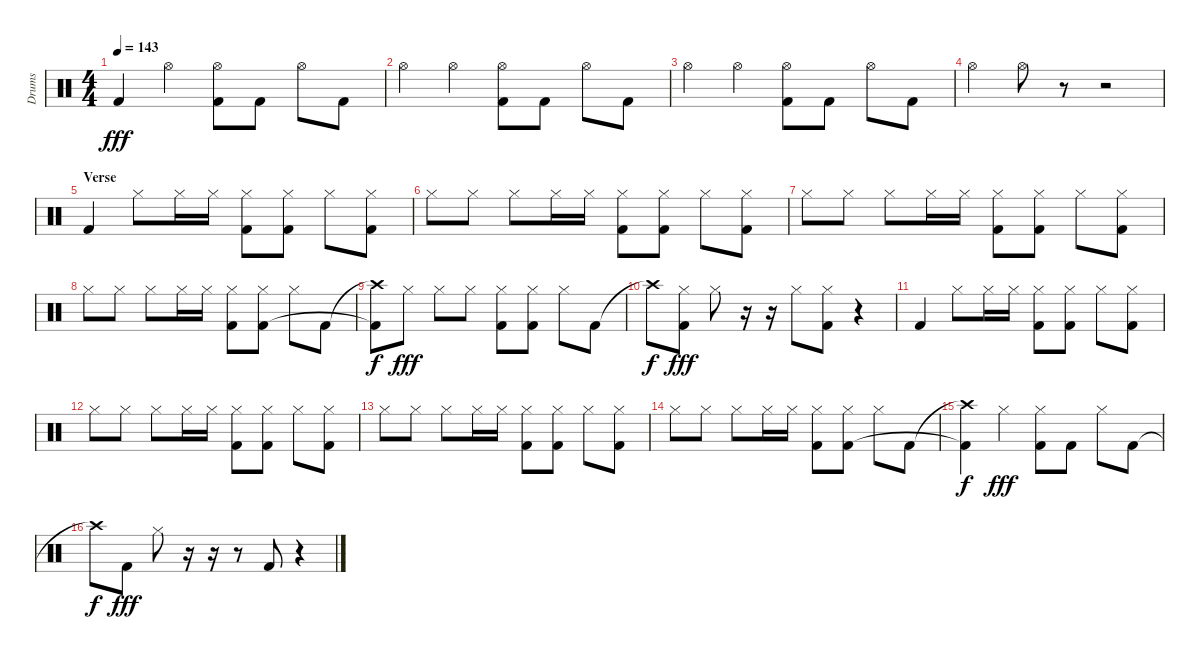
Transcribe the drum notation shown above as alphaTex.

\track ("Drums" "Drums") {instrument percussion}
\staff {score}
\articulation defaults
\ts (4 4)
\tempo 143
\clef neutral
\ks c "Kick (hit) 2".4{dy fff} "Hi-Hat (open)".4
("Hi-Hat (open)" "Kick (hit) 2").8 "Kick (hit) 2".8 "Hi-Hat (open)".8 "Kick (hit) 2".8 |
"Hi-Hat (open)".4 "Hi-Hat (open)".4 ("Hi-Hat (open)" "Kick (hit) 2").8 "Kick (hit) 2".8 "Hi-Hat (open)".8 "Kick (hit) 2".8 |
"Hi-Hat (open)".4 "Hi-Hat (open)".4 ("Hi-Hat (open)" "Kick (hit) 2").8 "Kick (hit) 2".8 "Hi-Hat (open)".8 "Kick (hit) 2".8 |
"Hi-Hat (open)".4 "Hi-Hat (open)".8 r.8 r.2 |
\section ("" "Verse")
"Kick (hit) 2".4 "Hi-Hat (closed)".8 "Hi-Hat (closed)".16 "Hi-Hat (closed)".16 ("Hi-Hat (closed)" "Kick (hit) 2").8 ("Hi-Hat (closed)" "Kick (hit) 2").8 "Hi-Hat (closed)".8 ("Hi-Hat (closed)" "Kick (hit) 2").8 |
"Hi-Hat (closed)".8 "Hi-Hat (closed)".8 "Hi-Hat (closed)".8 "Hi-Hat (closed)".16 "Hi-Hat (closed)".16 ("Hi-Hat (closed)" "Kick (hit) 2").8 ("Hi-Hat (closed)" "Kick (hit) 2").8 "Hi-Hat (closed)".8 ("Hi-Hat (closed)" "Kick (hit) 2").8 |
"Hi-Hat (closed)".8 "Hi-Hat (closed)".8 "Hi-Hat (closed)".8 "Hi-Hat (closed)".16 "Hi-Hat (closed)".16 ("Hi-Hat (closed)" "Kick (hit) 2").8 ("Hi-Hat (closed)" "Kick (hit) 2").8 "Hi-Hat (closed)".8 ("Hi-Hat (closed)" "Kick (hit) 2").8 |
"Hi-Hat (closed)".8 "Hi-Hat (closed)".8 "Hi-Hat (closed)".8 "Hi-Hat (closed)".16 "Hi-Hat (closed)".16 ("Hi-Hat (closed)" "Kick (hit) 2").8 ("Hi-Hat (closed)" "Kick (hit) 2").8 "Hi-Hat (closed)".8 "Kick (hit) 2".8 |
("Crash high (hit)"{t} "Kick (hit) 2"{t}).8{dy f} "Hi-Hat (closed)".8{dy fff} "Hi-Hat (closed)".8 "Hi-Hat (closed)".8 ("Hi-Hat (closed)" "Kick (hit) 2").8 ("Hi-Hat (closed)" "Kick (hit) 2").8 "Hi-Hat (closed)".8 "Kick (hit) 2".8 |
"Crash high (hit)"{t}.8{dy f} ("Hi-Hat (closed)" "Kick (hit) 2").8{dy fff} "Hi-Hat (closed)".8 r.16 r.16 "Hi-Hat (closed)".8 ("Hi-Hat (closed)" "Kick (hit) 2").8 r.4 |
"Kick (hit) 2".4 "Hi-Hat (closed)".8 "Hi-Hat (closed)".16 "Hi-Hat (closed)".16 ("Hi-Hat (closed)" "Kick (hit) 2").8 ("Hi-Hat (closed)" "Kick (hit) 2").8 "Hi-Hat (closed)".8 ("Hi-Hat (closed)" "Kick (hit) 2").8 |
"Hi-Hat (closed)".8 "Hi-Hat (closed)".8 "Hi-Hat (closed)".8 "Hi-Hat (closed)".16 "Hi-Hat (closed)".16 ("Hi-Hat (closed)" "Kick (hit) 2").8 ("Hi-Hat (closed)" "Kick (hit) 2").8 "Hi-Hat (closed)".8 ("Hi-Hat (closed)" "Kick (hit) 2").8 |
"Hi-Hat (closed)".8 "Hi-Hat (closed)".8 "Hi-Hat (closed)".8 "Hi-Hat (closed)".16 "Hi-Hat (closed)".16 ("Hi-Hat (closed)" "Kick (hit) 2").8 ("Hi-Hat (closed)" "Kick (hit) 2").8 "Hi-Hat (closed)".8 ("Hi-Hat (closed)" "Kick (hit) 2").8 |
"Hi-Hat (closed)".8 "Hi-Hat (closed)".8 "Hi-Hat (closed)".8 "Hi-Hat (closed)".16 "Hi-Hat (closed)".16 ("Hi-Hat (closed)" "Kick (hit) 2").8 ("Hi-Hat (closed)" "Kick (hit) 2").8 "Hi-Hat (closed)".8 "Kick (hit) 2".8 |
("Crash high (hit)"{t} "Kick (hit) 2"{t}).4{dy f} "Hi-Hat (closed)".4{dy fff} ("Hi-Hat (closed)" "Kick (hit) 2").8 "Kick (hit) 2".8 "Hi-Hat (closed)".8 "Kick (hit) 2".8 |
"Crash high (hit)"{t}.8{dy f} "Kick (hit) 2".8{dy fff} "Hi-Hat (closed)".8 r.16 r.16 r.8 "Kick (hit) 2".8 r.4
